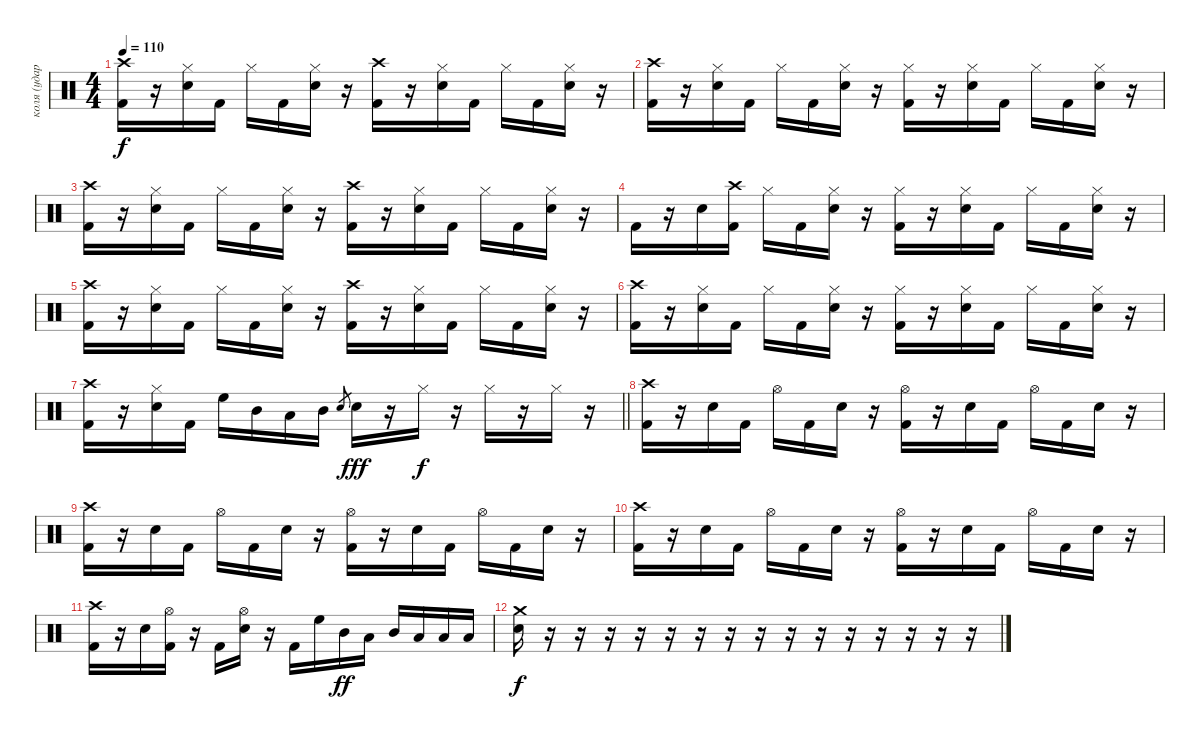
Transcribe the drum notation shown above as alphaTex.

\track ("коля (ударные)" "коля (удар") {instrument percussion}
\staff {score}
\articulation defaults
\ts (4 4)
\tempo 110
\clef neutral
\ks c
("Kick (hit) 2" "Crash high (hit)").16{dy f} r.16 ("Snare (hit) 2" "Hi-Hat (closed)").16 "Kick (hit) 2".16 "Hi-Hat (closed)".16 "Kick (hit) 2".16 ("Snare (hit) 2" "Hi-Hat (closed)").16 r.16 ("Kick (hit) 2" "Crash high (hit)").16 r.16 ("Snare (hit) 2" "Hi-Hat (closed)").16 "Kick (hit) 2".16 "Hi-Hat (closed)".16 "Kick (hit) 2".16 ("Snare (hit) 2" "Hi-Hat (closed)").16 r.16 |
("Kick (hit) 2" "Crash high (hit)").16 r.16 ("Snare (hit) 2" "Hi-Hat (closed)").16 "Kick (hit) 2".16 "Hi-Hat (closed)".16 "Kick (hit) 2".16 ("Snare (hit) 2" "Hi-Hat (closed)").16 r.16 ("Kick (hit) 2" "Hi-Hat (closed)").16 r.16 ("Snare (hit) 2" "Hi-Hat (closed)").16 "Kick (hit) 2".16 "Hi-Hat (closed)".16 "Kick (hit) 2".16 ("Snare (hit) 2" "Hi-Hat (closed)").16 r.16 |
("Kick (hit) 2" "Crash high (hit)").16 r.16 ("Snare (hit) 2" "Hi-Hat (closed)").16 "Kick (hit) 2".16 "Hi-Hat (closed)".16 "Kick (hit) 2".16 ("Snare (hit) 2" "Hi-Hat (closed)").16 r.16 ("Kick (hit) 2" "Crash high (hit)").16 r.16 ("Snare (hit) 2" "Hi-Hat (closed)").16 "Kick (hit) 2".16 "Hi-Hat (closed)".16 "Kick (hit) 2".16 ("Snare (hit) 2" "Hi-Hat (closed)").16 r.16 |
"Kick (hit) 2".16 r.16 "Snare (hit) 2".16 ("Kick (hit) 2" "Crash high (hit)").16 "Hi-Hat (closed)".16 "Kick (hit) 2".16 ("Snare (hit) 2" "Hi-Hat (closed)").16 r.16 ("Kick (hit) 2" "Hi-Hat (closed)").16 r.16 ("Snare (hit) 2" "Hi-Hat (closed)").16 "Kick (hit) 2".16 "Hi-Hat (closed)".16 "Kick (hit) 2".16 ("Snare (hit) 2" "Hi-Hat (closed)").16 r.16 |
("Kick (hit) 2" "Crash high (hit)").16 r.16 ("Snare (hit) 2" "Hi-Hat (closed)").16 "Kick (hit) 2".16 "Hi-Hat (closed)".16 "Kick (hit) 2".16 ("Snare (hit) 2" "Hi-Hat (closed)").16 r.16 ("Kick (hit) 2" "Crash high (hit)").16 r.16 ("Snare (hit) 2" "Hi-Hat (closed)").16 "Kick (hit) 2".16 "Hi-Hat (closed)".16 "Kick (hit) 2".16 ("Snare (hit) 2" "Hi-Hat (closed)").16 r.16 |
("Kick (hit) 2" "Crash high (hit)").16 r.16 ("Snare (hit) 2" "Hi-Hat (closed)").16 "Kick (hit) 2".16 "Hi-Hat (closed)".16 "Kick (hit) 2".16 ("Snare (hit) 2" "Hi-Hat (closed)").16 r.16 ("Kick (hit) 2" "Hi-Hat (closed)").16 r.16 ("Snare (hit) 2" "Hi-Hat (closed)").16 "Kick (hit) 2".16 "Hi-Hat (closed)".16 "Kick (hit) 2".16 ("Snare (hit) 2" "Hi-Hat (closed)").16 r.16 |
\barLineRight lightlight
("Kick (hit) 2" "Crash high (hit)").16 r.16 ("Snare (hit) 2" "Hi-Hat (closed)").16 "Kick (hit) 2".16 "High Floor Tom (hit)".16 "Mid Tom (hit)".16 "Low Tom (hit)".16 "Mid Tom (hit)".16 "Snare (hit) 2".8{gr} "Snare (hit) 2".16{dy fff} r.16 "Hi-Hat (closed)".16{dy f} r.16 "Hi-Hat (closed)".16 r.16 "Hi-Hat (closed)".16 r.16 |
("Kick (hit) 2" "Crash high (hit)").16 r.16 "Snare (hit) 2".16 "Kick (hit) 2".16 "Hi-Hat (open)".16 "Kick (hit) 2".16 "Snare (hit) 2".16 r.16 ("Kick (hit) 2" "Hi-Hat (open)").16 r.16 "Snare (hit) 2".16 "Kick (hit) 2".16 "Hi-Hat (open)".16 "Kick (hit) 2".16 "Snare (hit) 2".16 r.16 |
("Kick (hit) 2" "Crash high (hit)").16 r.16 "Snare (hit) 2".16 "Kick (hit) 2".16 "Hi-Hat (open)".16 "Kick (hit) 2".16 "Snare (hit) 2".16 r.16 ("Kick (hit) 2" "Hi-Hat (open)").16 r.16 "Snare (hit) 2".16 "Kick (hit) 2".16 "Hi-Hat (open)".16 "Kick (hit) 2".16 "Snare (hit) 2".16 r.16 |
("Kick (hit) 2" "Crash high (hit)").16 r.16 "Snare (hit) 2".16 "Kick (hit) 2".16 "Hi-Hat (open)".16 "Kick (hit) 2".16 "Snare (hit) 2".16 r.16 ("Kick (hit) 2" "Hi-Hat (open)").16 r.16 "Snare (hit) 2".16 "Kick (hit) 2".16 "Hi-Hat (open)".16 "Kick (hit) 2".16 "Snare (hit) 2".16 r.16 |
("Kick (hit) 2" "Crash high (hit)").16 r.16 "Snare (hit) 2".16 ("Kick (hit) 2" "Hi-Hat (open)").16 r.16 "Kick (hit) 2".16 ("Snare (hit) 2" "Hi-Hat (open)").16 r.16 "Kick (hit) 2".16 "High Floor Tom (hit)".16 "Mid Tom (hit)".16{dy ff} "Low Tom (hit)".16 "Mid Tom (hit)".16 "Low Floor Tom (hit)".16 "Low Tom (hit)".16 "Low Floor Tom (hit)".16 |
("Snare (hit) 2" "Crash medium (hit)").16{dy f} r.16 r.16 r.16 r.16 r.16 r.16 r.16 r.16 r.16 r.16 r.16 r.16 r.16 r.16 r.16
